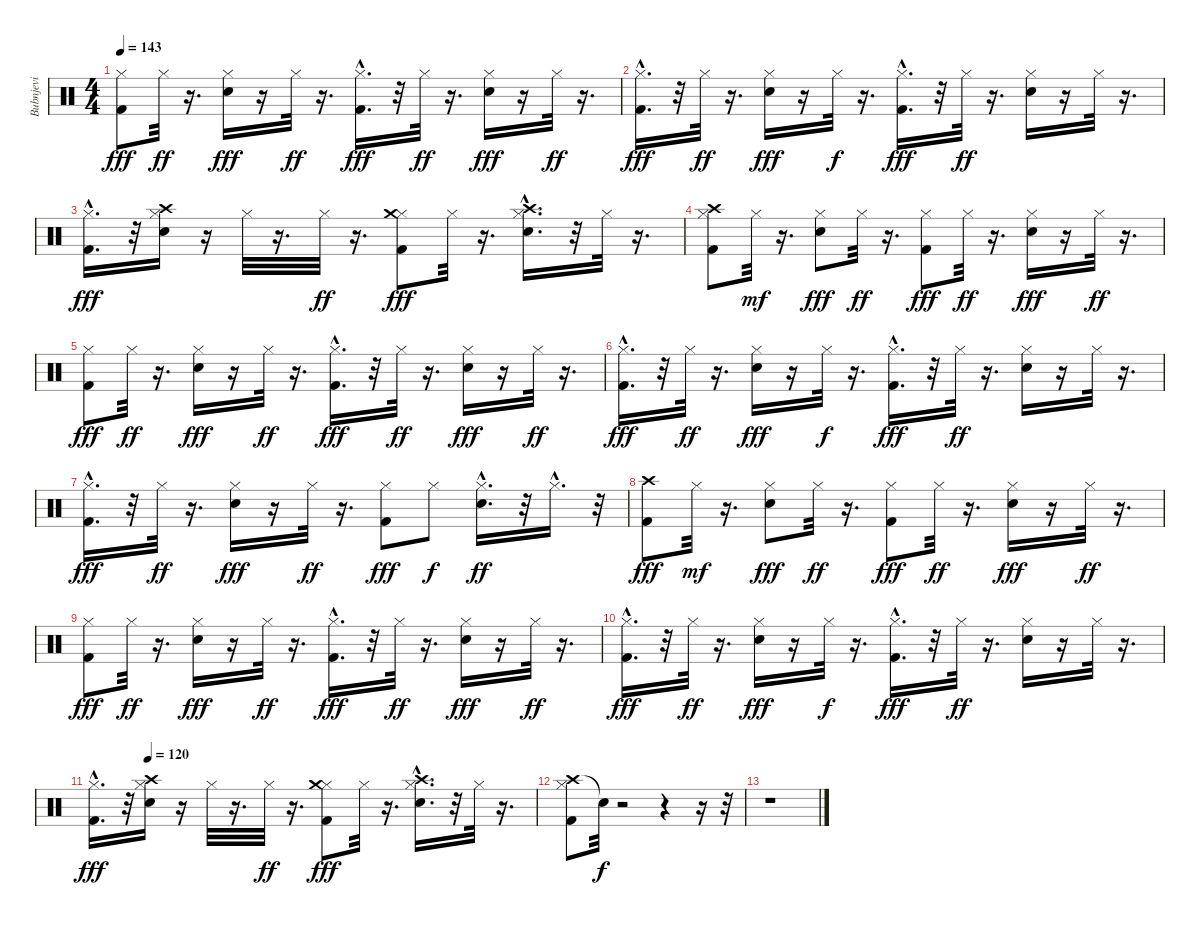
\track ("Bubnjevi" "Bubnjevi") {instrument percussion}
\staff {score}
\articulation defaults
\ts (4 4)
\tempo 143
\clef neutral
\ks c
("Hi-Hat (closed)" "Kick (hit) 2").8{dy fff} "Hi-Hat (closed)".32{dy ff} r.16{d} ("Snare (hit) 2" "Hi-Hat (closed)").16{dy fff} r.16 "Hi-Hat (closed)".32{dy ff} r.16{d} ("Hi-Hat (closed)" "Kick (hit) 2"{hac}).16{d dy fff} r.32 "Hi-Hat (closed)".32{dy ff} r.16{d} ("Hi-Hat (closed)" "Snare (hit) 2").16{dy fff} r.16 "Hi-Hat (closed)".32{dy ff} r.16{d} |
("Hi-Hat (closed)" "Kick (hit) 2"{hac}).16{d dy fff} r.32 "Hi-Hat (closed)".32{dy ff} r.16{d} ("Snare (hit) 2" "Hi-Hat (closed)").16{dy fff} r.16 "Hi-Hat (closed)".32{dy f} r.16{d} ("Hi-Hat (closed)" "Kick (hit) 2"{hac}).16{d dy fff} r.32 "Hi-Hat (closed)".32{dy ff} r.16{d} ("Snare (hit) 2" "Hi-Hat (closed)").16 r.16 "Hi-Hat (closed)".32 r.16{d} |
("Hi-Hat (closed)" "Kick (hit) 2"{hac}).16{d dy fff} r.32 ("Snare (hit) 2" "Hi-Hat (closed)" "Crash high (hit)").16 r.16 "Hi-Hat (closed)".32 r.16{d} "Hi-Hat (closed)".32{dy ff} r.16{d} ("Hi-Hat (closed)" "Crash medium (hit)" "Kick (hit) 2").8{dy fff} "Hi-Hat (closed)".32 r.16{d} ("Snare (hit) 2"{hac} "Hi-Hat (closed)" "Crash high (hit)").16{d} r.32 "Hi-Hat (closed)".32 r.16{d} |
("Crash high (hit)" "Hi-Hat (closed)" "Kick (hit) 2").8 "Hi-Hat (closed)".32{dy mf} r.16{d} ("Snare (hit) 2" "Hi-Hat (closed)").8{dy fff} "Hi-Hat (closed)".32{dy ff} r.16{d} ("Hi-Hat (closed)" "Kick (hit) 2").8{dy fff} "Hi-Hat (closed)".32{dy ff} r.16{d} ("Snare (hit) 2" "Hi-Hat (closed)").16{dy fff} r.16 "Hi-Hat (closed)".32{dy ff} r.16{d} |
("Hi-Hat (closed)" "Kick (hit) 2").8{dy fff} "Hi-Hat (closed)".32{dy ff} r.16{d} ("Snare (hit) 2" "Hi-Hat (closed)").16{dy fff} r.16 "Hi-Hat (closed)".32{dy ff} r.16{d} ("Hi-Hat (closed)" "Kick (hit) 2"{hac}).16{d dy fff} r.32 "Hi-Hat (closed)".32{dy ff} r.16{d} ("Hi-Hat (closed)" "Snare (hit) 2").16{dy fff} r.16 "Hi-Hat (closed)".32{dy ff} r.16{d} |
("Hi-Hat (closed)" "Kick (hit) 2"{hac}).16{d dy fff} r.32 "Hi-Hat (closed)".32{dy ff} r.16{d} ("Snare (hit) 2" "Hi-Hat (closed)").16{dy fff} r.16 "Hi-Hat (closed)".32{dy f} r.16{d} ("Hi-Hat (closed)" "Kick (hit) 2"{hac}).16{d dy fff} r.32 "Hi-Hat (closed)".32{dy ff} r.16{d} ("Snare (hit) 2" "Hi-Hat (closed)").16 r.16 "Hi-Hat (closed)".32 r.16{d} |
("Hi-Hat (closed)" "Kick (hit) 2"{hac}).16{d dy fff} r.32 "Hi-Hat (closed)".32{dy ff} r.16{d} ("Snare (hit) 2" "Hi-Hat (closed)").16{dy fff} r.16 "Hi-Hat (closed)".32{dy ff} r.16{d} ("Hi-Hat (closed)" "Kick (hit) 2").8{dy fff} "Hi-Hat (closed)".8{dy f} ("Snare (hit) 2"{hac} "Hi-Hat (closed)").16{d dy ff} r.32 "Hi-Hat (closed)"{hac}.16{d} r.32 |
("Crash high (hit)" "Kick (hit) 2").8{dy fff} "Hi-Hat (closed)".32{dy mf} r.16{d} ("Snare (hit) 2" "Hi-Hat (closed)").8{dy fff} "Hi-Hat (closed)".32{dy ff} r.16{d} ("Hi-Hat (closed)" "Kick (hit) 2").8{dy fff} "Hi-Hat (closed)".32{dy ff} r.16{d} ("Snare (hit) 2" "Hi-Hat (closed)").16{dy fff} r.16 "Hi-Hat (closed)".32{dy ff} r.16{d} |
("Hi-Hat (closed)" "Kick (hit) 2").8{dy fff} "Hi-Hat (closed)".32{dy ff} r.16{d} ("Snare (hit) 2" "Hi-Hat (closed)").16{dy fff} r.16 "Hi-Hat (closed)".32{dy ff} r.16{d} ("Hi-Hat (closed)" "Kick (hit) 2"{hac}).16{d dy fff} r.32 "Hi-Hat (closed)".32{dy ff} r.16{d} ("Hi-Hat (closed)" "Snare (hit) 2").16{dy fff} r.16 "Hi-Hat (closed)".32{dy ff} r.16{d} |
("Hi-Hat (closed)" "Kick (hit) 2"{hac}).16{d dy fff} r.32 "Hi-Hat (closed)".32{dy ff} r.16{d} ("Snare (hit) 2" "Hi-Hat (closed)").16{dy fff} r.16 "Hi-Hat (closed)".32{dy f} r.16{d} ("Hi-Hat (closed)" "Kick (hit) 2"{hac}).16{d dy fff} r.32 "Hi-Hat (closed)".32{dy ff} r.16{d} ("Snare (hit) 2" "Hi-Hat (closed)").16 r.16 "Hi-Hat (closed)".32 r.16{d} |
\tempo (120 0.125)
("Hi-Hat (closed)" "Kick (hit) 2"{hac}).16{d dy fff} r.32 ("Snare (hit) 2" "Hi-Hat (closed)" "Crash high (hit)").16 r.16 "Hi-Hat (closed)".32 r.16{d} "Hi-Hat (closed)".32{dy ff} r.16{d} ("Hi-Hat (closed)" "Crash medium (hit)" "Kick (hit) 2").8{dy fff} "Hi-Hat (closed)".32 r.16{d} ("Snare (hit) 2"{hac} "Hi-Hat (closed)" "Crash high (hit)").16{d} r.32 "Hi-Hat (closed)".32 r.16{d} |
("Crash high (hit)" "Hi-Hat (closed)" "Kick (hit) 2").8 "Snare (hit)"{t}.32{dy f} r.2 r.4 r.16 r.32 |
r.1
